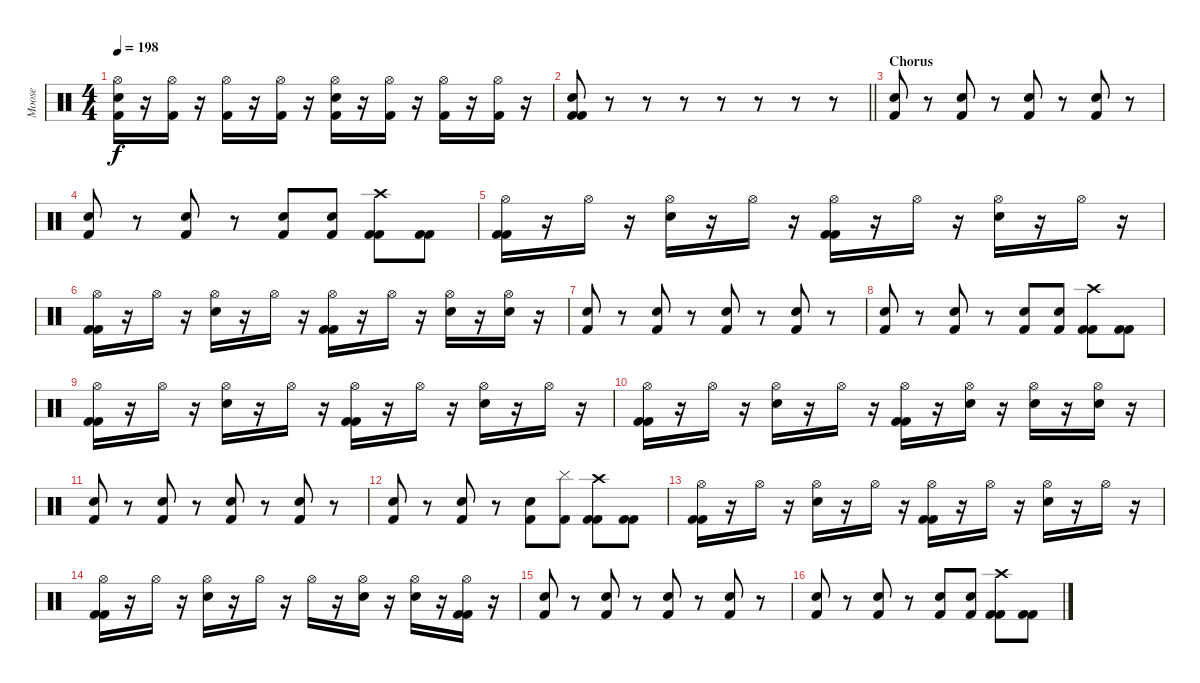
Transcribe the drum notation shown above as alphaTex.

\track ("Moose" "Moose") {instrument percussion}
\staff {score}
\articulation defaults
\ts (4 4)
\tempo 198
\clef neutral
\ks c
("Hi-Hat (open)" "Electric Snare (hit)" "Kick (hit) 2").16{dy f} r.16 ("Hi-Hat (open)" "Kick (hit) 2").16 r.16 ("Hi-Hat (open)" "Kick (hit) 2").16 r.16 ("Hi-Hat (open)" "Kick (hit) 2").16 r.16 ("Hi-Hat (open)" "Electric Snare (hit)" "Kick (hit) 2").16 r.16 ("Hi-Hat (open)" "Kick (hit) 2").16 r.16 ("Hi-Hat (open)" "Kick (hit) 2").16 r.16 ("Hi-Hat (open)" "Kick (hit) 2").16 r.16 |
\barLineRight lightlight
("Electric Snare (hit)" "Kick (hit) 2" "Kick (hit) 2").8 r.8 r.8 r.8 r.8 r.8 r.8 r.8 |
\section ("" "Chorus")
("Electric Snare (hit)" "Kick (hit) 2").8 r.8 ("Electric Snare (hit)" "Kick (hit) 2").8 r.8 ("Electric Snare (hit)" "Kick (hit) 2").8 r.8 ("Electric Snare (hit)" "Kick (hit) 2").8 r.8 |
("Electric Snare (hit)" "Kick (hit) 2").8 r.8 ("Electric Snare (hit)" "Kick (hit) 2").8 r.8 ("Electric Snare (hit)" "Kick (hit) 2").8 ("Electric Snare (hit)" "Kick (hit) 2").8 ("Crash high (hit)" "Kick (hit) 2" "Kick (hit) 2").8 ("Kick (hit) 2" "Kick (hit) 2").8 |
("Hi-Hat (open)" "Kick (hit) 2" "Kick (hit) 2").16 r.16 "Hi-Hat (open)".16 r.16 ("Hi-Hat (open)" "Electric Snare (hit)").16 r.16 "Hi-Hat (open)".16 r.16 ("Hi-Hat (open)" "Kick (hit) 2" "Kick (hit) 2").16 r.16 "Hi-Hat (open)".16 r.16 ("Hi-Hat (open)" "Electric Snare (hit)").16 r.16 "Hi-Hat (open)".16 r.16 |
("Hi-Hat (open)" "Kick (hit) 2" "Kick (hit) 2").16 r.16 "Hi-Hat (open)".16 r.16 ("Hi-Hat (open)" "Electric Snare (hit)").16 r.16 "Hi-Hat (open)".16 r.16 ("Hi-Hat (open)" "Kick (hit) 2" "Kick (hit) 2").16 r.16 "Hi-Hat (open)".16 r.16 ("Hi-Hat (open)" "Electric Snare (hit)").16 r.16 ("Hi-Hat (open)" "Electric Snare (hit)").16 r.16 |
("Electric Snare (hit)" "Kick (hit) 2").8 r.8 ("Electric Snare (hit)" "Kick (hit) 2").8 r.8 ("Electric Snare (hit)" "Kick (hit) 2").8 r.8 ("Electric Snare (hit)" "Kick (hit) 2").8 r.8 |
("Electric Snare (hit)" "Kick (hit) 2").8 r.8 ("Electric Snare (hit)" "Kick (hit) 2").8 r.8 ("Electric Snare (hit)" "Kick (hit) 2").8 ("Electric Snare (hit)" "Kick (hit) 2").8 ("Crash high (hit)" "Kick (hit) 2" "Kick (hit) 2").8 ("Kick (hit) 2" "Kick (hit) 2").8 |
("Hi-Hat (open)" "Kick (hit) 2" "Kick (hit) 2").16 r.16 "Hi-Hat (open)".16 r.16 ("Hi-Hat (open)" "Electric Snare (hit)").16 r.16 "Hi-Hat (open)".16 r.16 ("Hi-Hat (open)" "Kick (hit) 2" "Kick (hit) 2").16 r.16 "Hi-Hat (open)".16 r.16 ("Hi-Hat (open)" "Electric Snare (hit)").16 r.16 "Hi-Hat (open)".16 r.16 |
("Hi-Hat (open)" "Kick (hit) 2" "Kick (hit) 2").16 r.16 "Hi-Hat (open)".16 r.16 ("Hi-Hat (open)" "Electric Snare (hit)").16 r.16 "Hi-Hat (open)".16 r.16 ("Hi-Hat (open)" "Kick (hit) 2" "Kick (hit) 2").16 r.16 ("Hi-Hat (open)" "Electric Snare (hit)").16 r.16 ("Hi-Hat (open)" "Electric Snare (hit)").16 r.16 ("Hi-Hat (open)" "Electric Snare (hit)").16 r.16 |
("Electric Snare (hit)" "Kick (hit) 2").8 r.8 ("Electric Snare (hit)" "Kick (hit) 2").8 r.8 ("Electric Snare (hit)" "Kick (hit) 2").8 r.8 ("Electric Snare (hit)" "Kick (hit) 2").8 r.8 |
("Electric Snare (hit)" "Kick (hit) 2").8 r.8 ("Electric Snare (hit)" "Kick (hit) 2").8 r.8 ("Electric Snare (hit)" "Kick (hit) 2").8 ("Cymbal (hit)" "Kick (hit) 2").8 ("Crash high (hit)" "Kick (hit) 2" "Kick (hit) 2").8 ("Kick (hit) 2" "Kick (hit) 2").8 |
("Hi-Hat (open)" "Kick (hit) 2" "Kick (hit) 2").16 r.16 "Hi-Hat (open)".16 r.16 ("Hi-Hat (open)" "Electric Snare (hit)").16 r.16 "Hi-Hat (open)".16 r.16 ("Hi-Hat (open)" "Kick (hit) 2" "Kick (hit) 2").16 r.16 "Hi-Hat (open)".16 r.16 ("Hi-Hat (open)" "Electric Snare (hit)").16 r.16 "Hi-Hat (open)".16 r.16 |
("Hi-Hat (open)" "Kick (hit) 2" "Kick (hit) 2").16 r.16 "Hi-Hat (open)".16 r.16 ("Hi-Hat (open)" "Electric Snare (hit)").16 r.16 "Hi-Hat (open)".16 r.16 "Hi-Hat (open)".16 r.16 ("Hi-Hat (open)" "Electric Snare (hit)").16 r.16 ("Hi-Hat (open)" "Electric Snare (hit)").16 r.16 ("Hi-Hat (open)" "Kick (hit) 2" "Kick (hit) 2").16 r.16 |
("Electric Snare (hit)" "Kick (hit) 2").8 r.8 ("Electric Snare (hit)" "Kick (hit) 2").8 r.8 ("Electric Snare (hit)" "Kick (hit) 2").8 r.8 ("Electric Snare (hit)" "Kick (hit) 2").8 r.8 |
("Electric Snare (hit)" "Kick (hit) 2").8 r.8 ("Electric Snare (hit)" "Kick (hit) 2").8 r.8 ("Electric Snare (hit)" "Kick (hit) 2").8 ("Electric Snare (hit)" "Kick (hit) 2").8 ("Crash high (hit)" "Kick (hit) 2" "Kick (hit) 2").8 ("Kick (hit) 2" "Kick (hit) 2").8
